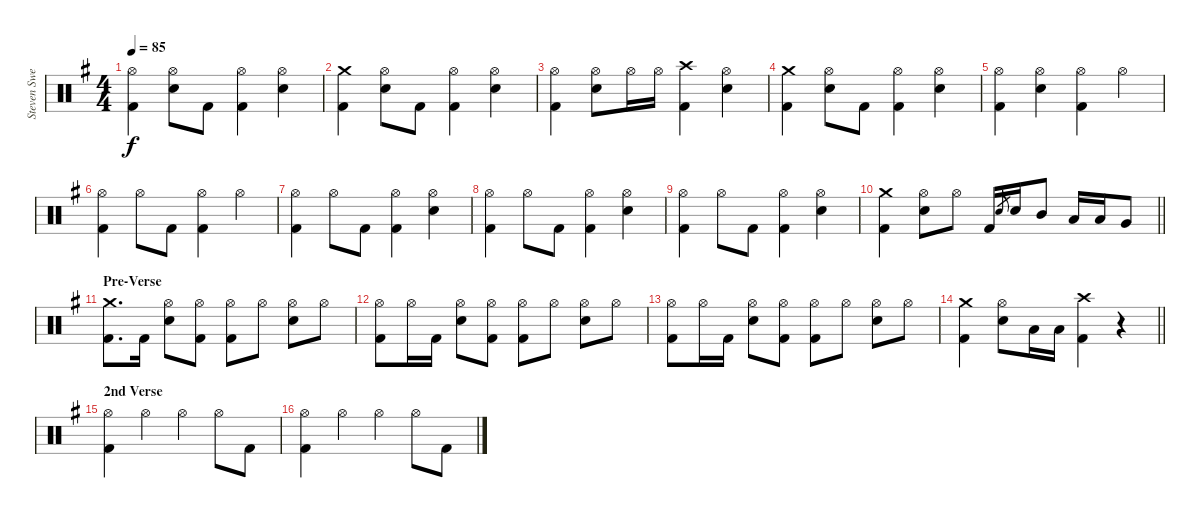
\track ("Steven Sweet" "Steven Swe") {instrument percussion}
\staff {score}
\articulation defaults
\ts (4 4)
\tempo 85
\clef neutral
\ks g
("Hi-Hat (open)" "Kick (hit) 2").4{dy f} ("Hi-Hat (open)" "Snare (hit) 2").8 "Kick (hit) 2".8 ("Hi-Hat (open)" "Kick (hit) 2").4 ("Hi-Hat (open)" "Snare (hit) 2").4 |
("Crash medium (hit)" "Kick (hit) 2").4 ("Hi-Hat (open)" "Snare (hit) 2").8 "Kick (hit) 2".8 ("Hi-Hat (open)" "Kick (hit) 2").4 ("Hi-Hat (open)" "Snare (hit) 2").4 |
("Hi-Hat (open)" "Kick (hit) 2").4 ("Hi-Hat (open)" "Snare (hit) 2").8 "Hi-Hat (open)".16 "Hi-Hat (open)".16 ("Crash high (hit)" "Kick (hit) 2").4 ("Hi-Hat (open)" "Snare (hit) 2").4 |
("Crash medium (hit)" "Kick (hit) 2").4 ("Hi-Hat (open)" "Snare (hit) 2").8 "Kick (hit) 2".8 ("Hi-Hat (open)" "Kick (hit) 2").4 ("Hi-Hat (open)" "Snare (hit) 2").4 |
("Hi-Hat (open)" "Kick (hit) 2").4 ("Hi-Hat (open)" "Snare (hit) 2").4 ("Hi-Hat (open)" "Kick (hit) 2").4 "Hi-Hat (open)".4 |
("Hi-Hat (open)" "Kick (hit) 2").4 "Hi-Hat (open)".8 "Kick (hit) 2".8 ("Hi-Hat (open)" "Kick (hit) 2").4 "Hi-Hat (open)".4 |
("Hi-Hat (open)" "Kick (hit) 2").4 "Hi-Hat (open)".8 "Kick (hit) 2".8 ("Hi-Hat (open)" "Kick (hit) 2").4 ("Hi-Hat (open)" "Snare (hit) 2").4 |
("Hi-Hat (open)" "Kick (hit) 2").4 "Hi-Hat (open)".8 "Kick (hit) 2".8 ("Hi-Hat (open)" "Kick (hit) 2").4 ("Hi-Hat (open)" "Snare (hit) 2").4 |
("Hi-Hat (open)" "Kick (hit) 2").4 "Hi-Hat (open)".8 "Kick (hit) 2".8 ("Hi-Hat (open)" "Kick (hit) 2").4 ("Hi-Hat (open)" "Snare (hit) 2").4 |
\barLineRight lightlight
("Crash medium (hit)" "Kick (hit) 2").4 ("Hi-Hat (open)" "Snare (hit) 2").8 "Hi-Hat (open)".8 "Kick (hit) 2".16 "Snare (hit) 2".8{gr} "Snare (hit) 2".16 "Mid Tom (hit)".8 "Low Tom (hit)".16 "Low Tom (hit)".16 "Very Low Tom (hit)".8 |
\section ("" "Pre-Verse")
("Crash medium (hit)" "Kick (hit) 2").8{d} "Kick (hit) 2".16 ("Hi-Hat (open)" "Snare (hit) 2").8 ("Hi-Hat (open)" "Kick (hit) 2").8 ("Hi-Hat (open)" "Kick (hit) 2").8 "Hi-Hat (open)".8 ("Hi-Hat (open)" "Snare (hit) 2").8 "Hi-Hat (open)".8 |
("Hi-Hat (open)" "Kick (hit) 2").8 "Hi-Hat (open)".16 "Kick (hit) 2".16 ("Hi-Hat (open)" "Snare (hit) 2").8 ("Hi-Hat (open)" "Kick (hit) 2").8 ("Hi-Hat (open)" "Kick (hit) 2").8 "Hi-Hat (open)".8 ("Hi-Hat (open)" "Snare (hit) 2").8 "Hi-Hat (open)".8 |
("Hi-Hat (open)" "Kick (hit) 2").8 "Hi-Hat (open)".16 "Kick (hit) 2".16 ("Hi-Hat (open)" "Snare (hit) 2").8 ("Hi-Hat (open)" "Kick (hit) 2").8 ("Hi-Hat (open)" "Kick (hit) 2").8 "Hi-Hat (open)".8 ("Hi-Hat (open)" "Snare (hit) 2").8 "Hi-Hat (open)".8 |
\barLineRight lightlight
("Crash medium (hit)" "Kick (hit) 2").4 ("Hi-Hat (open)" "Snare (hit) 2").8 "Low Tom (hit)".16 "Low Tom (hit)".16 ("Crash high (hit)" "Kick (hit) 2").4 r.4 |
\section ("" "2nd Verse")
("Hi-Hat (open)" "Kick (hit) 2").4 "Hi-Hat (open)".4 "Hi-Hat (open)".4 "Hi-Hat (open)".8 "Kick (hit) 2".8 |
("Hi-Hat (open)" "Kick (hit) 2").4 "Hi-Hat (open)".4 "Hi-Hat (open)".4 "Hi-Hat (open)".8 "Kick (hit) 2".8
